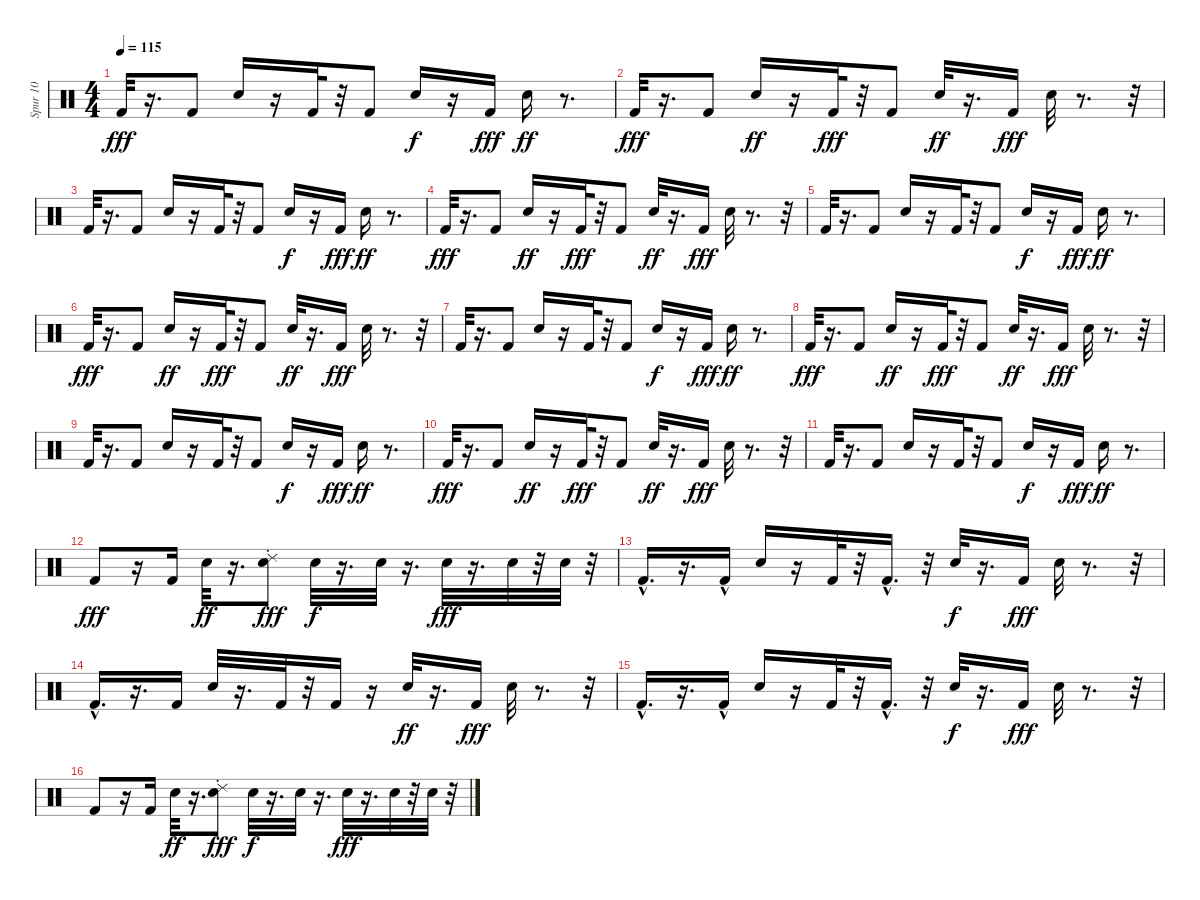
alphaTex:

\track ("Spur 10" "Spur 10") {instrument percussion}
\staff {score}
\articulation defaults
\ts (4 4)
\tempo 115
\clef neutral
\ks c "Kick (hit) 2".32{dy fff}
r.16{d} "Kick (hit) 2".8 "Metronome (bell)".16 r.16 "Kick (hit) 2".32 r.32 "Kick (hit) 2".8 "Metronome (bell)".16{dy f} r.16 "Kick (hit) 2".16{dy fff} "Metronome (bell)".16{dy ff} r.8{d} |
"Kick (hit) 2".32{dy fff} r.16{d} "Kick (hit) 2".8 "Metronome (bell)".16{dy ff} r.16 "Kick (hit) 2".32{dy fff} r.32 "Kick (hit) 2".8 "Metronome (bell)".32{dy ff} r.16{d} "Kick (hit) 2".16{dy fff} "Metronome (bell)".32 r.8{d} r.32 |
"Kick (hit) 2".32 r.16{d} "Kick (hit) 2".8 "Metronome (bell)".16 r.16 "Kick (hit) 2".32 r.32 "Kick (hit) 2".8 "Metronome (bell)".16{dy f} r.16 "Kick (hit) 2".16{dy fff} "Metronome (bell)".16{dy ff} r.8{d} |
"Kick (hit) 2".32{dy fff} r.16{d} "Kick (hit) 2".8 "Metronome (bell)".16{dy ff} r.16 "Kick (hit) 2".32{dy fff} r.32 "Kick (hit) 2".8 "Metronome (bell)".32{dy ff} r.16{d} "Kick (hit) 2".16{dy fff} "Metronome (bell)".32 r.8{d} r.32 |
"Kick (hit) 2".32 r.16{d} "Kick (hit) 2".8 "Metronome (bell)".16 r.16 "Kick (hit) 2".32 r.32 "Kick (hit) 2".8 "Metronome (bell)".16{dy f} r.16 "Kick (hit) 2".16{dy fff} "Metronome (bell)".16{dy ff} r.8{d} |
"Kick (hit) 2".32{dy fff} r.16{d} "Kick (hit) 2".8 "Metronome (bell)".16{dy ff} r.16 "Kick (hit) 2".32{dy fff} r.32 "Kick (hit) 2".8 "Metronome (bell)".32{dy ff} r.16{d} "Kick (hit) 2".16{dy fff} "Metronome (bell)".32 r.8{d} r.32 |
"Kick (hit) 2".32 r.16{d} "Kick (hit) 2".8 "Metronome (bell)".16 r.16 "Kick (hit) 2".32 r.32 "Kick (hit) 2".8 "Metronome (bell)".16{dy f} r.16 "Kick (hit) 2".16{dy fff} "Metronome (bell)".16{dy ff} r.8{d} |
"Kick (hit) 2".32{dy fff} r.16{d} "Kick (hit) 2".8 "Metronome (bell)".16{dy ff} r.16 "Kick (hit) 2".32{dy fff} r.32 "Kick (hit) 2".8 "Metronome (bell)".32{dy ff} r.16{d} "Kick (hit) 2".16{dy fff} "Metronome (bell)".32 r.8{d} r.32 |
"Kick (hit) 2".32 r.16{d} "Kick (hit) 2".8 "Metronome (bell)".16 r.16 "Kick (hit) 2".32 r.32 "Kick (hit) 2".8 "Metronome (bell)".16{dy f} r.16 "Kick (hit) 2".16{dy fff} "Metronome (bell)".16{dy ff} r.8{d} |
"Kick (hit) 2".32{dy fff} r.16{d} "Kick (hit) 2".8 "Metronome (bell)".16{dy ff} r.16 "Kick (hit) 2".32{dy fff} r.32 "Kick (hit) 2".8 "Metronome (bell)".32{dy ff} r.16{d} "Kick (hit) 2".16{dy fff} "Metronome (bell)".32 r.8{d} r.32 |
"Kick (hit) 2".32 r.16{d} "Kick (hit) 2".8 "Metronome (bell)".16 r.16 "Kick (hit) 2".32 r.32 "Kick (hit) 2".8 "Metronome (bell)".16{dy f} r.16 "Kick (hit) 2".16{dy fff} "Metronome (bell)".16{dy ff} r.8{d} |
"Kick (hit) 2".8{dy fff} r.16 "Kick (hit) 2".16 "Metronome (bell)".32{dy ff} r.16{d} ("Ride (choke) 2" "Metronome (bell)").8{dy fff} "Metronome (bell)".32{dy f} r.16{d} "Metronome (bell)".32 r.16{d} "Metronome (bell)".32{dy fff} r.16{d} "Metronome (bell)".32 r.32 "Metronome (bell)".32 r.32 |
"Kick (hit) 2"{hac}.16{d volume 14} r.16{d} "Kick (hit) 2"{hac}.16 "Metronome (bell)".16 r.16 "Kick (hit) 2".32 r.32 "Kick (hit) 2"{hac}.16{d} r.32 "Metronome (bell)".32{dy f} r.16{d} "Kick (hit) 2".16{dy fff} "Metronome (bell)".32 r.8{d} r.32 |
"Kick (hit) 2"{hac}.16{d} r.16{d} "Kick (hit) 2".16 "Metronome (bell)".32 r.16{d} "Kick (hit) 2".32 r.32 "Kick (hit) 2".16 r.16 "Metronome (bell)".32{dy ff} r.16{d} "Kick (hit) 2".16{dy fff} "Metronome (bell)".32 r.8{d} r.32 |
"Kick (hit) 2"{hac}.16{d} r.16{d} "Kick (hit) 2"{hac}.16 "Metronome (bell)".16 r.16 "Kick (hit) 2".32 r.32 "Kick (hit) 2"{hac}.16{d} r.32 "Metronome (bell)".32{dy f} r.16{d} "Kick (hit) 2".16{dy fff} "Metronome (bell)".32 r.8{d} r.32 |
"Kick (hit) 2".8{volume 14} r.16 "Kick (hit) 2".16 "Metronome (bell)".32{dy ff} r.16{d} ("Ride (choke) 2" "Metronome (bell)").8{dy fff} "Metronome (bell)".32{dy f} r.16{d} "Metronome (bell)".32 r.16{d} "Metronome (bell)".32{dy fff} r.16{d} "Metronome (bell)".32 r.32 "Metronome (bell)".32 r.32
